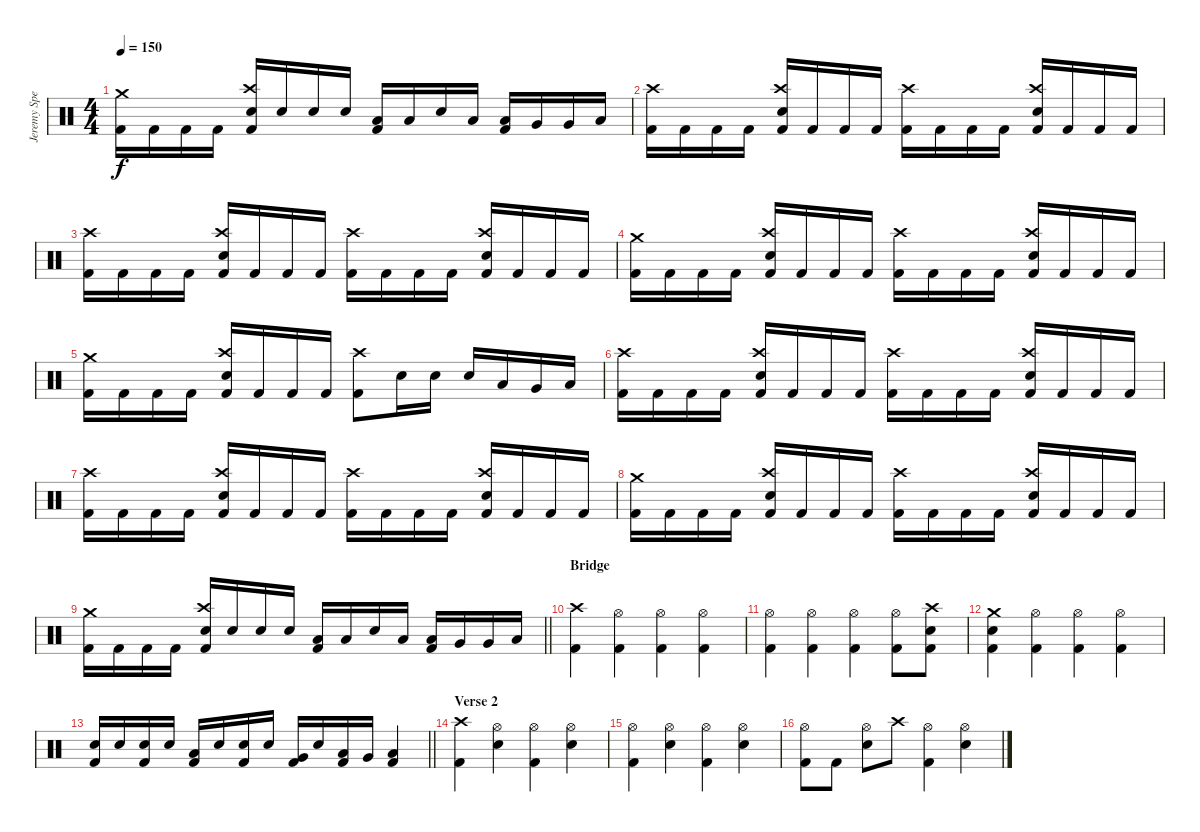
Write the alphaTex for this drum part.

\track ("Jeremy Spencer – Drums" "Jeremy Spe") {instrument percussion}
\staff {score}
\articulation defaults
\ts (4 4)
\tempo 150
\clef neutral
\ks c
("Crash medium (hit)" "Kick (hit) 2").16{dy f} "Kick (hit) 2".16 "Kick (hit) 2".16 "Kick (hit) 2".16 ("Crash high (hit)" "Snare (hit) 2" "Kick (hit) 2").16 "Snare (hit) 2".16 "Snare (hit) 2".16 "Snare (hit) 2".16 ("Low Tom (hit)" "Kick (hit) 2").16 "Low Tom (hit)".16 "Snare (hit) 2".16 "Low Tom (hit)".16 ("Low Tom (hit)" "Kick (hit) 2").16 "Very Low Tom (hit)".16 "Very Low Tom (hit)".16 "Low Floor Tom (hit)".16 |
("Crash high (hit)" "Kick (hit) 2").16 "Kick (hit) 2".16 "Kick (hit) 2".16 "Kick (hit) 2".16 ("Crash high (hit)" "Snare (hit) 2" "Kick (hit) 2").16 "Kick (hit) 2".16 "Kick (hit) 2".16 "Kick (hit) 2".16 ("Crash high (hit)" "Kick (hit) 2").16 "Kick (hit) 2".16 "Kick (hit) 2".16 "Kick (hit) 2".16 ("Crash high (hit)" "Snare (hit) 2" "Kick (hit) 2").16 "Kick (hit) 2".16 "Kick (hit) 2".16 "Kick (hit) 2".16 |
("Crash high (hit)" "Kick (hit) 2").16 "Kick (hit) 2".16 "Kick (hit) 2".16 "Kick (hit) 2".16 ("Crash high (hit)" "Snare (hit) 2" "Kick (hit) 2").16 "Kick (hit) 2".16 "Kick (hit) 2".16 "Kick (hit) 2".16 ("Crash high (hit)" "Kick (hit) 2").16 "Kick (hit) 2".16 "Kick (hit) 2".16 "Kick (hit) 2".16 ("Crash high (hit)" "Snare (hit) 2" "Kick (hit) 2").16 "Kick (hit) 2".16 "Kick (hit) 2".16 "Kick (hit) 2".16 |
("Crash medium (hit)" "Kick (hit) 2").16 "Kick (hit) 2".16 "Kick (hit) 2".16 "Kick (hit) 2".16 ("Crash high (hit)" "Snare (hit) 2" "Kick (hit) 2").16 "Kick (hit) 2".16 "Kick (hit) 2".16 "Kick (hit) 2".16 ("Crash high (hit)" "Kick (hit) 2").16 "Kick (hit) 2".16 "Kick (hit) 2".16 "Kick (hit) 2".16 ("Crash high (hit)" "Snare (hit) 2" "Kick (hit) 2").16 "Kick (hit) 2".16 "Kick (hit) 2".16 "Kick (hit) 2".16 |
("Crash medium (hit)" "Kick (hit) 2").16 "Kick (hit) 2".16 "Kick (hit) 2".16 "Kick (hit) 2".16 ("Crash high (hit)" "Snare (hit) 2" "Kick (hit) 2").16 "Kick (hit) 2".16 "Kick (hit) 2".16 "Kick (hit) 2".16 ("Crash high (hit)" "Kick (hit) 2").8 "Snare (hit) 2".16 "Snare (hit) 2".16 "Snare (hit) 2".16 "Low Tom (hit)".16 "Very Low Tom (hit)".16 "Low Floor Tom (hit)".16 |
("Crash high (hit)" "Kick (hit) 2").16 "Kick (hit) 2".16 "Kick (hit) 2".16 "Kick (hit) 2".16 ("Crash high (hit)" "Snare (hit) 2" "Kick (hit) 2").16 "Kick (hit) 2".16 "Kick (hit) 2".16 "Kick (hit) 2".16 ("Crash high (hit)" "Kick (hit) 2").16 "Kick (hit) 2".16 "Kick (hit) 2".16 "Kick (hit) 2".16 ("Crash high (hit)" "Snare (hit) 2" "Kick (hit) 2").16 "Kick (hit) 2".16 "Kick (hit) 2".16 "Kick (hit) 2".16 |
("Crash high (hit)" "Kick (hit) 2").16 "Kick (hit) 2".16 "Kick (hit) 2".16 "Kick (hit) 2".16 ("Crash high (hit)" "Snare (hit) 2" "Kick (hit) 2").16 "Kick (hit) 2".16 "Kick (hit) 2".16 "Kick (hit) 2".16 ("Crash high (hit)" "Kick (hit) 2").16 "Kick (hit) 2".16 "Kick (hit) 2".16 "Kick (hit) 2".16 ("Crash high (hit)" "Snare (hit) 2" "Kick (hit) 2").16 "Kick (hit) 2".16 "Kick (hit) 2".16 "Kick (hit) 2".16 |
("Crash medium (hit)" "Kick (hit) 2").16 "Kick (hit) 2".16 "Kick (hit) 2".16 "Kick (hit) 2".16 ("Crash high (hit)" "Snare (hit) 2" "Kick (hit) 2").16 "Kick (hit) 2".16 "Kick (hit) 2".16 "Kick (hit) 2".16 ("Crash high (hit)" "Kick (hit) 2").16 "Kick (hit) 2".16 "Kick (hit) 2".16 "Kick (hit) 2".16 ("Crash high (hit)" "Snare (hit) 2" "Kick (hit) 2").16 "Kick (hit) 2".16 "Kick (hit) 2".16 "Kick (hit) 2".16 |
\barLineRight lightlight
("Crash medium (hit)" "Kick (hit) 2").16 "Kick (hit) 2".16 "Kick (hit) 2".16 "Kick (hit) 2".16 ("Crash high (hit)" "Snare (hit) 2" "Kick (hit) 2").16 "Snare (hit) 2".16 "Snare (hit) 2".16 "Snare (hit) 2".16 ("Low Tom (hit)" "Kick (hit) 2").16 "Low Tom (hit)".16 "Snare (hit) 2".16 "Low Tom (hit)".16 ("Low Tom (hit)" "Kick (hit) 2").16 "Very Low Tom (hit)".16 "Very Low Tom (hit)".16 "Low Floor Tom (hit)".16 |
\section ("" "Bridge")
("Crash high (hit)" "Kick (hit) 2").4 ("Hi-Hat (open)" "Kick (hit) 2").4 ("Hi-Hat (open)" "Kick (hit) 2").4 ("Hi-Hat (open)" "Kick (hit) 2").4 |
("Hi-Hat (open)" "Kick (hit) 2").4 ("Hi-Hat (open)" "Kick (hit) 2").4 ("Hi-Hat (open)" "Kick (hit) 2").4 ("Hi-Hat (open)" "Kick (hit) 2").8 ("Crash high (hit)" "Snare (hit) 2" "Kick (hit) 2").8 |
("Crash medium (hit)" "Snare (hit) 2" "Kick (hit) 2").4 ("Hi-Hat (open)" "Kick (hit) 2").4 ("Hi-Hat (open)" "Kick (hit) 2").4 ("Hi-Hat (open)" "Kick (hit) 2").4 |
\barLineRight lightlight
("Snare (hit) 2" "Kick (hit) 2").16 "Snare (hit) 2".16 ("Snare (hit) 2" "Kick (hit) 2").16 "Snare (hit) 2".16 ("Low Tom (hit)" "Kick (hit) 2").16 "Snare (hit) 2".16 ("Snare (hit) 2" "Kick (hit) 2").16 "Snare (hit) 2".16 ("Very Low Tom (hit)" "Kick (hit) 2").16 "Snare (hit) 2".16 ("Low Tom (hit)" "Kick (hit) 2").16 "Very Low Tom (hit)".16 ("Low Floor Tom (hit)" "Kick (hit) 2").4 |
\section ("" "Verse 2")
("Crash high (hit)" "Kick (hit) 2").4 ("Hi-Hat (open)" "Snare (hit) 2").4 ("Hi-Hat (open)" "Kick (hit) 2").4 ("Hi-Hat (open)" "Snare (hit) 2").4 |
("Hi-Hat (open)" "Kick (hit) 2").4 ("Hi-Hat (open)" "Snare (hit) 2").4 ("Hi-Hat (open)" "Kick (hit) 2").4 ("Hi-Hat (open)" "Snare (hit) 2").4 |
("Hi-Hat (open)" "Kick (hit) 2").8 "Kick (hit) 2".8 ("Hi-Hat (open)" "Snare (hit) 2").8 "Crash high (hit)".8 ("Hi-Hat (open)" "Kick (hit) 2").4 ("Hi-Hat (open)" "Snare (hit) 2").4
